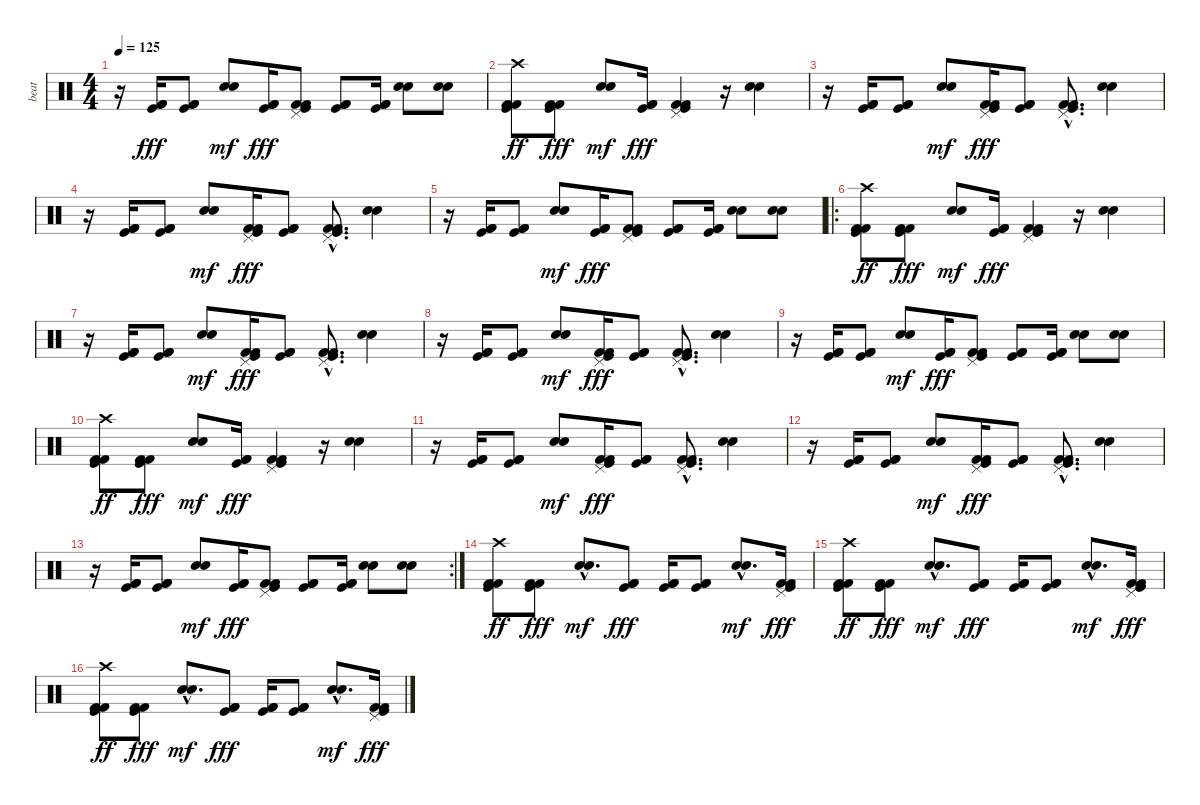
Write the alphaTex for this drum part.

\track ("beat" "beat") {instrument percussion}
\staff {score}
\articulation defaults
\ts (4 4)
\tempo 125
\clef neutral
\ks c
r.16{dy fff} ("Kick (hit)" "Kick (hit) 2" "Kick (hit) 2").16 ("Kick (hit)" "Kick (hit) 2" "Kick (hit) 2").8 ("Snare (hit) 2" "Hand Clap (hit)").8{dy mf} ("Kick (hit)" "Kick (hit) 2" "Kick (hit) 2").16{dy fff} ("Kick (hit)" "Kick (hit) 2" "Kick (hit) 2" "Pedal Hi-Hat (hit)").8 ("Kick (hit)" "Kick (hit) 2" "Kick (hit) 2").8 ("Kick (hit)" "Kick (hit) 2" "Kick (hit) 2").16 ("Snare (hit) 2" "Electric Snare (hit)").8 ("Snare (hit) 2" "Electric Snare (hit)").8 |
("Kick (hit)" "Kick (hit) 2" "Kick (hit) 2" "Crash high (hit)").8{dy ff} ("Kick (hit)" "Kick (hit) 2" "Kick (hit) 2").8{dy fff} ("Snare (hit) 2" "Hand Clap (hit)").8{dy mf} ("Kick (hit)" "Kick (hit) 2" "Kick (hit) 2").16{dy fff} ("Kick (hit)" "Kick (hit) 2" "Kick (hit) 2" "Pedal Hi-Hat (hit)").4 r.16 ("Snare (hit) 2" "Electric Snare (hit)").4 |
r.16 ("Kick (hit)" "Kick (hit) 2" "Kick (hit) 2").16 ("Kick (hit)" "Kick (hit) 2" "Kick (hit) 2").8 ("Snare (hit) 2" "Hand Clap (hit)").8{dy mf} ("Kick (hit)" "Kick (hit) 2" "Kick (hit) 2" "Pedal Hi-Hat (hit)").16{dy fff} ("Kick (hit)" "Kick (hit) 2" "Kick (hit) 2").8 ("Kick (hit)"{hac} "Kick (hit) 2"{hac} "Kick (hit) 2"{hac} "Pedal Hi-Hat (hit)"{hac}).8{d} ("Snare (hit) 2" "Electric Snare (hit)").4 |
r.16 ("Kick (hit)" "Kick (hit) 2" "Kick (hit) 2").16 ("Kick (hit)" "Kick (hit) 2" "Kick (hit) 2").8 ("Snare (hit) 2" "Hand Clap (hit)").8{dy mf} ("Kick (hit)" "Kick (hit) 2" "Kick (hit) 2" "Pedal Hi-Hat (hit)").16{dy fff} ("Kick (hit)" "Kick (hit) 2" "Kick (hit) 2").8 ("Kick (hit)"{hac} "Kick (hit) 2"{hac} "Kick (hit) 2"{hac} "Pedal Hi-Hat (hit)"{hac}).8{d} ("Snare (hit) 2" "Electric Snare (hit)").4 |
r.16 ("Kick (hit)" "Kick (hit) 2" "Kick (hit) 2").16 ("Kick (hit)" "Kick (hit) 2" "Kick (hit) 2").8 ("Snare (hit) 2" "Hand Clap (hit)").8{dy mf} ("Kick (hit)" "Kick (hit) 2" "Kick (hit) 2").16{dy fff} ("Kick (hit)" "Kick (hit) 2" "Kick (hit) 2" "Pedal Hi-Hat (hit)").8 ("Kick (hit)" "Kick (hit) 2" "Kick (hit) 2").8 ("Kick (hit)" "Kick (hit) 2" "Kick (hit) 2").16 ("Snare (hit) 2" "Electric Snare (hit)").8 ("Snare (hit) 2" "Electric Snare (hit)").8 |
\ro
("Kick (hit)" "Kick (hit) 2" "Kick (hit) 2" "Crash high (hit)").8{dy ff} ("Kick (hit)" "Kick (hit) 2" "Kick (hit) 2").8{dy fff} ("Snare (hit) 2" "Hand Clap (hit)").8{dy mf} ("Kick (hit)" "Kick (hit) 2" "Kick (hit) 2").16{dy fff} ("Kick (hit)" "Kick (hit) 2" "Kick (hit) 2" "Pedal Hi-Hat (hit)").4 r.16 ("Snare (hit) 2" "Electric Snare (hit)").4 |
r.16 ("Kick (hit)" "Kick (hit) 2" "Kick (hit) 2").16 ("Kick (hit)" "Kick (hit) 2" "Kick (hit) 2").8 ("Snare (hit) 2" "Hand Clap (hit)").8{dy mf} ("Kick (hit)" "Kick (hit) 2" "Kick (hit) 2" "Pedal Hi-Hat (hit)").16{dy fff} ("Kick (hit)" "Kick (hit) 2" "Kick (hit) 2").8 ("Kick (hit)"{hac} "Kick (hit) 2"{hac} "Kick (hit) 2"{hac} "Pedal Hi-Hat (hit)"{hac}).8{d} ("Snare (hit) 2" "Electric Snare (hit)").4 |
r.16 ("Kick (hit)" "Kick (hit) 2" "Kick (hit) 2").16 ("Kick (hit)" "Kick (hit) 2" "Kick (hit) 2").8 ("Snare (hit) 2" "Hand Clap (hit)").8{dy mf} ("Kick (hit)" "Kick (hit) 2" "Kick (hit) 2" "Pedal Hi-Hat (hit)").16{dy fff} ("Kick (hit)" "Kick (hit) 2" "Kick (hit) 2").8 ("Kick (hit)"{hac} "Kick (hit) 2"{hac} "Kick (hit) 2"{hac} "Pedal Hi-Hat (hit)"{hac}).8{d} ("Snare (hit) 2" "Electric Snare (hit)").4 |
r.16 ("Kick (hit)" "Kick (hit) 2" "Kick (hit) 2").16 ("Kick (hit)" "Kick (hit) 2" "Kick (hit) 2").8 ("Snare (hit) 2" "Hand Clap (hit)").8{dy mf} ("Kick (hit)" "Kick (hit) 2" "Kick (hit) 2").16{dy fff} ("Kick (hit)" "Kick (hit) 2" "Kick (hit) 2" "Pedal Hi-Hat (hit)").8 ("Kick (hit)" "Kick (hit) 2" "Kick (hit) 2").8 ("Kick (hit)" "Kick (hit) 2" "Kick (hit) 2").16 ("Snare (hit) 2" "Electric Snare (hit)").8 ("Snare (hit) 2" "Electric Snare (hit)").8 |
("Kick (hit)" "Kick (hit) 2" "Kick (hit) 2" "Crash high (hit)").8{dy ff} ("Kick (hit)" "Kick (hit) 2" "Kick (hit) 2").8{dy fff} ("Snare (hit) 2" "Hand Clap (hit)").8{dy mf} ("Kick (hit)" "Kick (hit) 2" "Kick (hit) 2").16{dy fff} ("Kick (hit)" "Kick (hit) 2" "Kick (hit) 2" "Pedal Hi-Hat (hit)").4 r.16 ("Snare (hit) 2" "Electric Snare (hit)").4 |
r.16 ("Kick (hit)" "Kick (hit) 2" "Kick (hit) 2").16 ("Kick (hit)" "Kick (hit) 2" "Kick (hit) 2").8 ("Snare (hit) 2" "Hand Clap (hit)").8{dy mf} ("Kick (hit)" "Kick (hit) 2" "Kick (hit) 2" "Pedal Hi-Hat (hit)").16{dy fff} ("Kick (hit)" "Kick (hit) 2" "Kick (hit) 2").8 ("Kick (hit)"{hac} "Kick (hit) 2"{hac} "Kick (hit) 2"{hac} "Pedal Hi-Hat (hit)"{hac}).8{d} ("Snare (hit) 2" "Electric Snare (hit)").4 |
r.16 ("Kick (hit)" "Kick (hit) 2" "Kick (hit) 2").16 ("Kick (hit)" "Kick (hit) 2" "Kick (hit) 2").8 ("Snare (hit) 2" "Hand Clap (hit)").8{dy mf} ("Kick (hit)" "Kick (hit) 2" "Kick (hit) 2" "Pedal Hi-Hat (hit)").16{dy fff} ("Kick (hit)" "Kick (hit) 2" "Kick (hit) 2").8 ("Kick (hit)"{hac} "Kick (hit) 2"{hac} "Kick (hit) 2"{hac} "Pedal Hi-Hat (hit)"{hac}).8{d} ("Snare (hit) 2" "Electric Snare (hit)").4 |
\rc 2
r.16 ("Kick (hit)" "Kick (hit) 2" "Kick (hit) 2").16 ("Kick (hit)" "Kick (hit) 2" "Kick (hit) 2").8 ("Snare (hit) 2" "Hand Clap (hit)").8{dy mf} ("Kick (hit)" "Kick (hit) 2" "Kick (hit) 2").16{dy fff} ("Kick (hit)" "Kick (hit) 2" "Kick (hit) 2" "Pedal Hi-Hat (hit)").8 ("Kick (hit)" "Kick (hit) 2" "Kick (hit) 2").8 ("Kick (hit)" "Kick (hit) 2" "Kick (hit) 2").16 ("Snare (hit) 2" "Electric Snare (hit)").8 ("Snare (hit) 2" "Electric Snare (hit)").8 |
("Kick (hit)" "Kick (hit) 2" "Kick (hit) 2" "Crash high (hit)").8{dy ff} ("Kick (hit)" "Kick (hit) 2" "Kick (hit) 2").8{dy fff} ("Snare (hit) 2"{hac} "Hand Clap (hit)"{hac}).8{d dy mf} ("Kick (hit)" "Kick (hit) 2" "Kick (hit) 2").8{dy fff} ("Kick (hit)" "Kick (hit) 2" "Kick (hit) 2").16 ("Kick (hit)" "Kick (hit) 2" "Kick (hit) 2").8 ("Snare (hit) 2"{hac} "Hand Clap (hit)"{hac}).8{d dy mf} ("Kick (hit)" "Kick (hit) 2" "Kick (hit) 2" "Pedal Hi-Hat (hit)").16{dy fff} |
("Kick (hit)" "Kick (hit) 2" "Kick (hit) 2" "Crash high (hit)").8{dy ff} ("Kick (hit)" "Kick (hit) 2" "Kick (hit) 2").8{dy fff} ("Snare (hit) 2"{hac} "Hand Clap (hit)"{hac}).8{d dy mf} ("Kick (hit)" "Kick (hit) 2" "Kick (hit) 2").8{dy fff} ("Kick (hit)" "Kick (hit) 2" "Kick (hit) 2").16 ("Kick (hit)" "Kick (hit) 2" "Kick (hit) 2").8 ("Snare (hit) 2"{hac} "Hand Clap (hit)"{hac}).8{d dy mf} ("Kick (hit)" "Kick (hit) 2" "Kick (hit) 2" "Pedal Hi-Hat (hit)").16{dy fff} |
("Kick (hit)" "Kick (hit) 2" "Kick (hit) 2" "Crash high (hit)").8{dy ff} ("Kick (hit)" "Kick (hit) 2" "Kick (hit) 2").8{dy fff} ("Snare (hit) 2"{hac} "Hand Clap (hit)"{hac}).8{d dy mf} ("Kick (hit)" "Kick (hit) 2" "Kick (hit) 2").8{dy fff} ("Kick (hit)" "Kick (hit) 2" "Kick (hit) 2").16 ("Kick (hit)" "Kick (hit) 2" "Kick (hit) 2").8 ("Snare (hit) 2"{hac} "Hand Clap (hit)"{hac}).8{d dy mf} ("Kick (hit)" "Kick (hit) 2" "Kick (hit) 2" "Pedal Hi-Hat (hit)").16{dy fff}
